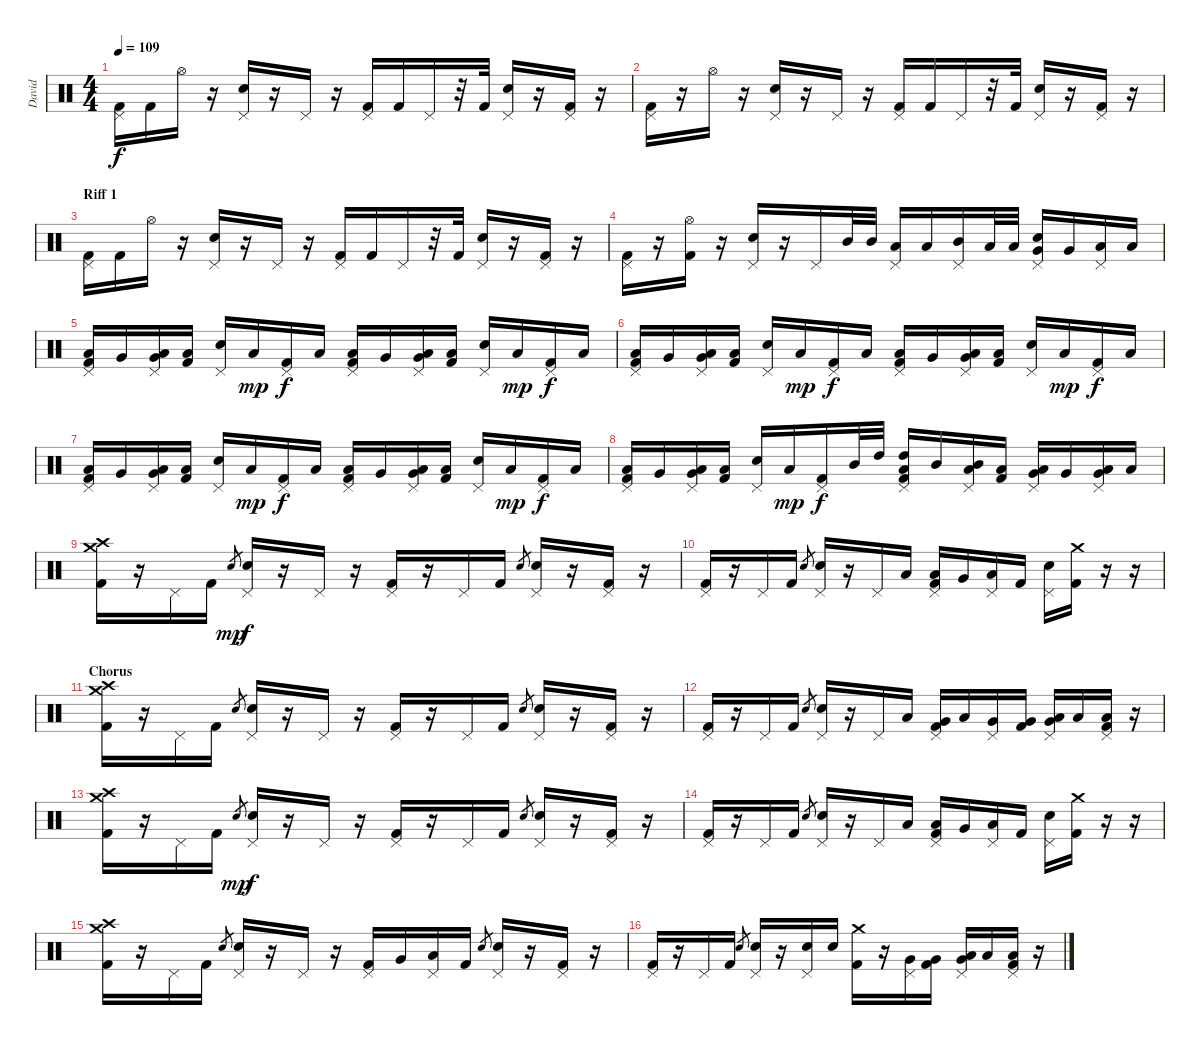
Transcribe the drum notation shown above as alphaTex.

\track ("David" "David") {instrument percussion}
\staff {score}
\articulation defaults
\ts (4 4)
\tempo 109
\clef neutral
\ks c
("Pedal Hi-Hat (hit)" "Kick (hit) 2").16{dy f} "Kick (hit) 2".16 "Hi-Hat (open)".16 r.16 ("Pedal Hi-Hat (hit)" "Snare (hit) 2").16 r.16 "Pedal Hi-Hat (hit)".16 r.16 ("Pedal Hi-Hat (hit)" "Kick (hit) 2").16 "Kick (hit) 2".16 "Pedal Hi-Hat (hit)".16 r.32 "Kick (hit) 2".32 ("Pedal Hi-Hat (hit)" "Snare (hit) 2").16 r.16 ("Pedal Hi-Hat (hit)" "Kick (hit) 2").16 r.16 |
("Pedal Hi-Hat (hit)" "Kick (hit) 2").16 r.16 "Hi-Hat (open)".16 r.16 ("Pedal Hi-Hat (hit)" "Snare (hit) 2").16 r.16 "Pedal Hi-Hat (hit)".16 r.16 ("Pedal Hi-Hat (hit)" "Kick (hit) 2").16 "Kick (hit) 2".16 "Pedal Hi-Hat (hit)".16 r.32 "Kick (hit) 2".32 ("Pedal Hi-Hat (hit)" "Snare (hit) 2").16 r.16 ("Pedal Hi-Hat (hit)" "Kick (hit) 2").16 r.16 |
\section ("" "Riff 1")
("Pedal Hi-Hat (hit)" "Kick (hit) 2").16 "Kick (hit) 2".16 "Hi-Hat (open)".16 r.16 ("Pedal Hi-Hat (hit)" "Snare (hit) 2").16 r.16 "Pedal Hi-Hat (hit)".16 r.16 ("Pedal Hi-Hat (hit)" "Kick (hit) 2").16 "Kick (hit) 2".16 "Pedal Hi-Hat (hit)".16 r.32 "Kick (hit) 2".32 ("Pedal Hi-Hat (hit)" "Snare (hit) 2").16 r.16 ("Pedal Hi-Hat (hit)" "Kick (hit) 2").16 r.16 |
("Pedal Hi-Hat (hit)" "Kick (hit) 2").16 r.16 ("Hi-Hat (open)" "Kick (hit) 2").16 r.16 ("Pedal Hi-Hat (hit)" "Snare (hit) 2").16 r.16 "Pedal Hi-Hat (hit)".16 "Mid Tom (hit)".32 "Mid Tom (hit)".32 ("Pedal Hi-Hat (hit)" "Low Tom (hit)").16 "Low Tom (hit)".16 ("Pedal Hi-Hat (hit)" "Mid Tom (hit)").16 "Low Tom (hit)".32 "Low Tom (hit)".32 ("Pedal Hi-Hat (hit)" "Snare (hit) 2" "Very Low Tom (hit)").16 "Very Low Tom (hit)".16 ("Pedal Hi-Hat (hit)" "Low Floor Tom (hit)").16 "Low Floor Tom (hit)".16 |
("Pedal Hi-Hat (hit)" "Low Tom (hit)" "Kick (hit) 2").16 "Very Low Tom (hit)".16 ("Pedal Hi-Hat (hit)" "Very Low Tom (hit)" "Low Floor Tom (hit)").16 ("Low Floor Tom (hit)" "Kick (hit) 2").16 ("Pedal Hi-Hat (hit)" "Snare (hit) 2").16 "Low Floor Tom (hit)".16{dy mp} ("Pedal Hi-Hat (hit)" "Kick (hit) 2").16{dy f} "Low Tom (hit)".16 ("Pedal Hi-Hat (hit)" "Low Tom (hit)" "Kick (hit) 2").16 "Very Low Tom (hit)".16 ("Pedal Hi-Hat (hit)" "Very Low Tom (hit)" "Low Floor Tom (hit)").16 ("Low Floor Tom (hit)" "Kick (hit) 2").16 ("Pedal Hi-Hat (hit)" "Snare (hit) 2").16 "Low Floor Tom (hit)".16{dy mp} ("Pedal Hi-Hat (hit)" "Kick (hit) 2").16{dy f} "Low Tom (hit)".16 |
("Pedal Hi-Hat (hit)" "Low Tom (hit)" "Kick (hit) 2").16 "Very Low Tom (hit)".16 ("Pedal Hi-Hat (hit)" "Very Low Tom (hit)" "Low Floor Tom (hit)").16 ("Low Floor Tom (hit)" "Kick (hit) 2").16 ("Pedal Hi-Hat (hit)" "Snare (hit) 2").16 "Low Floor Tom (hit)".16{dy mp} ("Pedal Hi-Hat (hit)" "Kick (hit) 2").16{dy f} "Low Tom (hit)".16 ("Pedal Hi-Hat (hit)" "Low Tom (hit)" "Kick (hit) 2").16 "Very Low Tom (hit)".16 ("Pedal Hi-Hat (hit)" "Very Low Tom (hit)" "Low Floor Tom (hit)").16 ("Low Floor Tom (hit)" "Kick (hit) 2").16 ("Pedal Hi-Hat (hit)" "Snare (hit) 2").16 "Low Floor Tom (hit)".16{dy mp} ("Pedal Hi-Hat (hit)" "Kick (hit) 2").16{dy f} "Low Tom (hit)".16 |
("Pedal Hi-Hat (hit)" "Low Tom (hit)" "Kick (hit) 2").16 "Very Low Tom (hit)".16 ("Pedal Hi-Hat (hit)" "Very Low Tom (hit)" "Low Floor Tom (hit)").16 ("Low Floor Tom (hit)" "Kick (hit) 2").16 ("Pedal Hi-Hat (hit)" "Snare (hit) 2").16 "Low Floor Tom (hit)".16{dy mp} ("Pedal Hi-Hat (hit)" "Kick (hit) 2").16{dy f} "Low Tom (hit)".16 ("Pedal Hi-Hat (hit)" "Low Tom (hit)" "Kick (hit) 2").16 "Very Low Tom (hit)".16 ("Pedal Hi-Hat (hit)" "Very Low Tom (hit)" "Low Floor Tom (hit)").16 ("Low Floor Tom (hit)" "Kick (hit) 2").16 ("Pedal Hi-Hat (hit)" "Snare (hit) 2").16 "Low Floor Tom (hit)".16{dy mp} ("Pedal Hi-Hat (hit)" "Kick (hit) 2").16{dy f} "Low Tom (hit)".16 |
("Pedal Hi-Hat (hit)" "Low Tom (hit)" "Kick (hit) 2").16 "Very Low Tom (hit)".16 ("Pedal Hi-Hat (hit)" "Very Low Tom (hit)" "Low Floor Tom (hit)").16 ("Low Floor Tom (hit)" "Kick (hit) 2").16 ("Pedal Hi-Hat (hit)" "Snare (hit) 2").16 "Low Floor Tom (hit)".16{dy mp} ("Pedal Hi-Hat (hit)" "Kick (hit) 2").16{dy f} "Mid Tom (hit)".32 "High Tom (hit)".32 ("Pedal Hi-Hat (hit)" "High Tom (hit)" "Low Tom (hit)" "Kick (hit) 2").16 "Mid Tom (hit)".16 ("Pedal Hi-Hat (hit)" "Mid Tom (hit)" "Low Tom (hit)").16 ("Low Tom (hit)" "Kick (hit) 2").16 ("Pedal Hi-Hat (hit)" "Very Low Tom (hit)" "Low Tom (hit)").16 "Very Low Tom (hit)".16 ("Pedal Hi-Hat (hit)" "Very Low Tom (hit)" "Low Floor Tom (hit)").16 "Low Floor Tom (hit)".16 |
("Crash medium (hit)" "Crash high (hit)" "Kick (hit) 2").16 r.16 "Pedal Hi-Hat (hit)".16 "Kick (hit) 2".16 "Snare (hit) 2".8{gr dy mp} ("Pedal Hi-Hat (hit)" "Snare (hit) 2").16{dy f} r.16 "Pedal Hi-Hat (hit)".16 r.16 ("Pedal Hi-Hat (hit)" "Kick (hit) 2").16 r.16 "Pedal Hi-Hat (hit)".16 "Kick (hit) 2".16 "Snare (hit) 2".8{gr} ("Pedal Hi-Hat (hit)" "Snare (hit) 2").16 r.16 ("Pedal Hi-Hat (hit)" "Kick (hit) 2").16 r.16 |
("Pedal Hi-Hat (hit)" "Kick (hit) 2").16 r.16 "Pedal Hi-Hat (hit)".16 "Kick (hit) 2".16 "Snare (hit) 2".8{gr} ("Pedal Hi-Hat (hit)" "Snare (hit) 2").16 r.16 "Pedal Hi-Hat (hit)".16 "Low Tom (hit)".16 ("Pedal Hi-Hat (hit)" "Low Tom (hit)" "Kick (hit) 2").16 "Very Low Tom (hit)".16 ("Pedal Hi-Hat (hit)" "Low Floor Tom (hit)").16 "Kick (hit) 2".16 ("Pedal Hi-Hat (hit)" "Snare (hit) 2").16 ("Crash medium (hit)" "Kick (hit) 2").16 r.16 r.16 |
\section ("" "Chorus")
("Crash medium (hit)" "Crash high (hit)" "Kick (hit) 2").16 r.16 "Pedal Hi-Hat (hit)".16 "Kick (hit) 2".16 "Snare (hit) 2".8{gr} ("Pedal Hi-Hat (hit)" "Snare (hit) 2").16 r.16 "Pedal Hi-Hat (hit)".16 r.16 ("Pedal Hi-Hat (hit)" "Kick (hit) 2").16 r.16 "Pedal Hi-Hat (hit)".16 "Kick (hit) 2".16 "Snare (hit) 2".8{gr} ("Pedal Hi-Hat (hit)" "Snare (hit) 2").16 r.16 ("Pedal Hi-Hat (hit)" "Kick (hit) 2").16 r.16 |
("Pedal Hi-Hat (hit)" "Kick (hit) 2").16 r.16 "Pedal Hi-Hat (hit)".16 "Kick (hit) 2".16 "Snare (hit) 2".8{gr} ("Pedal Hi-Hat (hit)" "Snare (hit) 2").16 r.16 "Pedal Hi-Hat (hit)".16 "Low Tom (hit)".16 ("Pedal Hi-Hat (hit)" "Very Low Tom (hit)" "Kick (hit) 2").16 "Low Tom (hit)".16 ("Pedal Hi-Hat (hit)" "Very Low Tom (hit)").16 ("Very Low Tom (hit)" "Kick (hit) 2").16 ("Pedal Hi-Hat (hit)" "Very Low Tom (hit)" "Low Floor Tom (hit)").16 "Low Floor Tom (hit)".16 ("Pedal Hi-Hat (hit)" "Low Floor Tom (hit)" "Kick (hit) 2").16 r.16 |
("Crash medium (hit)" "Crash high (hit)" "Kick (hit) 2").16 r.16 "Pedal Hi-Hat (hit)".16 "Kick (hit) 2".16 "Snare (hit) 2".8{gr dy mp} ("Pedal Hi-Hat (hit)" "Snare (hit) 2").16{dy f} r.16 "Pedal Hi-Hat (hit)".16 r.16 ("Pedal Hi-Hat (hit)" "Kick (hit) 2").16 r.16 "Pedal Hi-Hat (hit)".16 "Kick (hit) 2".16 "Snare (hit) 2".8{gr} ("Pedal Hi-Hat (hit)" "Snare (hit) 2").16 r.16 ("Pedal Hi-Hat (hit)" "Kick (hit) 2").16 r.16 |
("Pedal Hi-Hat (hit)" "Kick (hit) 2").16 r.16 "Pedal Hi-Hat (hit)".16 "Kick (hit) 2".16 "Snare (hit) 2".8{gr} ("Pedal Hi-Hat (hit)" "Snare (hit) 2").16 r.16 "Pedal Hi-Hat (hit)".16 "Low Tom (hit)".16 ("Pedal Hi-Hat (hit)" "Low Tom (hit)" "Kick (hit) 2").16 "Very Low Tom (hit)".16 ("Pedal Hi-Hat (hit)" "Low Floor Tom (hit)").16 "Kick (hit) 2".16 ("Pedal Hi-Hat (hit)" "Snare (hit) 2").16 ("Crash medium (hit)" "Kick (hit) 2").16 r.16 r.16 |
("Crash medium (hit)" "Crash high (hit)" "Kick (hit) 2").16 r.16 "Pedal Hi-Hat (hit)".16 "Kick (hit) 2".16 "Snare (hit) 2".8{gr} ("Pedal Hi-Hat (hit)" "Snare (hit) 2").16 r.16 "Pedal Hi-Hat (hit)".16 r.16 ("Pedal Hi-Hat (hit)" "Kick (hit) 2").16 "Very Low Tom (hit)".16 ("Pedal Hi-Hat (hit)" "Low Floor Tom (hit)").16 "Kick (hit) 2".16 "Snare (hit) 2".8{gr} ("Pedal Hi-Hat (hit)" "Snare (hit) 2").16 r.16 ("Pedal Hi-Hat (hit)" "Kick (hit) 2").16 r.16 |
("Pedal Hi-Hat (hit)" "Kick (hit) 2").16 r.16 "Pedal Hi-Hat (hit)".16 "Kick (hit) 2".16 "Snare (hit) 2".8{gr} ("Pedal Hi-Hat (hit)" "Snare (hit) 2").16 r.16 ("Pedal Hi-Hat (hit)" "Snare (hit) 2").16 "Snare (hit) 2".16 ("Crash medium (hit)" "Kick (hit) 2").16 r.16 ("Pedal Hi-Hat (hit)" "Very Low Tom (hit)").16 ("Very Low Tom (hit)" "Kick (hit) 2").16 ("Pedal Hi-Hat (hit)" "Very Low Tom (hit)" "Low Floor Tom (hit)").16 "Low Floor Tom (hit)".16 ("Pedal Hi-Hat (hit)" "Low Floor Tom (hit)" "Kick (hit) 2").16 r.16
